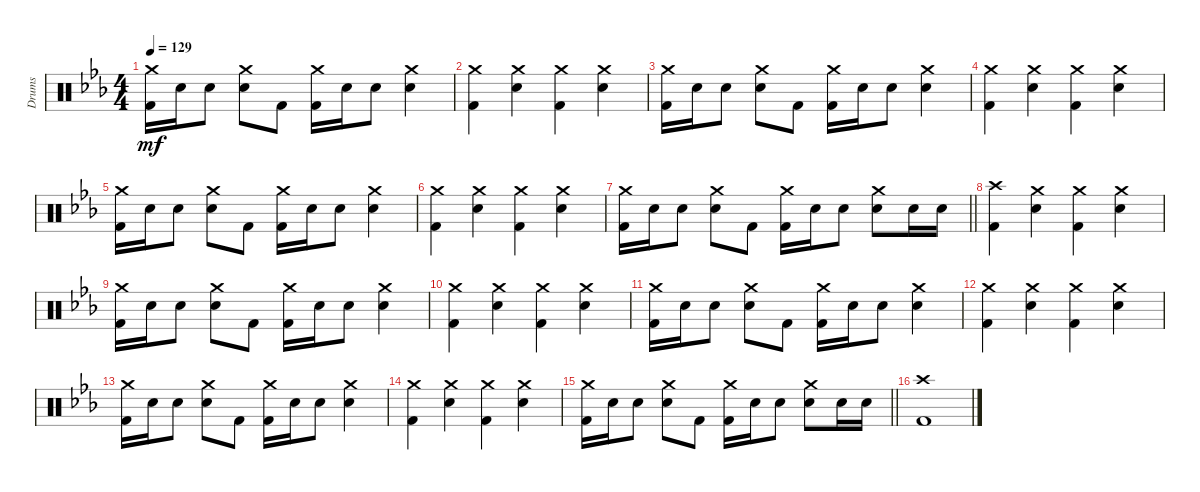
\track ("Drums" "Drums") {instrument percussion}
\staff {score}
\articulation defaults
\ts (4 4)
\tempo 129
\clef neutral
\ks eb
("Crash medium (hit)" "Kick (hit) 2").16{dy mf} "Electric Snare (hit)".16 "Electric Snare (hit)".8 ("Crash medium (hit)" "Electric Snare (hit)").8 "Kick (hit) 2".8 ("Crash medium (hit)" "Kick (hit) 2").16 "Electric Snare (hit)".16 "Electric Snare (hit)".8 ("Crash medium (hit)" "Electric Snare (hit)").4 |
("Crash medium (hit)" "Kick (hit) 2").4 ("Crash medium (hit)" "Electric Snare (hit)").4 ("Crash medium (hit)" "Kick (hit) 2").4 ("Crash medium (hit)" "Electric Snare (hit)").4 |
("Crash medium (hit)" "Kick (hit) 2").16 "Electric Snare (hit)".16 "Electric Snare (hit)".8 ("Crash medium (hit)" "Electric Snare (hit)").8 "Kick (hit) 2".8 ("Crash medium (hit)" "Kick (hit) 2").16 "Electric Snare (hit)".16 "Electric Snare (hit)".8 ("Crash medium (hit)" "Electric Snare (hit)").4 |
("Crash medium (hit)" "Kick (hit) 2").4 ("Crash medium (hit)" "Electric Snare (hit)").4 ("Crash medium (hit)" "Kick (hit) 2").4 ("Crash medium (hit)" "Electric Snare (hit)").4 |
("Crash medium (hit)" "Kick (hit) 2").16 "Electric Snare (hit)".16 "Electric Snare (hit)".8 ("Crash medium (hit)" "Electric Snare (hit)").8 "Kick (hit) 2".8 ("Crash medium (hit)" "Kick (hit) 2").16 "Electric Snare (hit)".16 "Electric Snare (hit)".8 ("Crash medium (hit)" "Electric Snare (hit)").4 |
("Crash medium (hit)" "Kick (hit) 2").4 ("Crash medium (hit)" "Electric Snare (hit)").4 ("Crash medium (hit)" "Kick (hit) 2").4 ("Crash medium (hit)" "Electric Snare (hit)").4 |
\barLineRight lightlight
("Crash medium (hit)" "Kick (hit) 2").16 "Electric Snare (hit)".16 "Electric Snare (hit)".8 ("Crash medium (hit)" "Electric Snare (hit)").8 "Kick (hit) 2".8 ("Crash medium (hit)" "Kick (hit) 2").16 "Electric Snare (hit)".16 "Electric Snare (hit)".8 ("Crash medium (hit)" "Electric Snare (hit)").8 "Electric Snare (hit)".16 "Electric Snare (hit)".16 |
("Crash high (hit)" "Kick (hit) 2").4 ("Crash medium (hit)" "Electric Snare (hit)").4 ("Crash medium (hit)" "Kick (hit) 2").4 ("Crash medium (hit)" "Electric Snare (hit)").4 |
("Crash medium (hit)" "Kick (hit) 2").16 "Electric Snare (hit)".16 "Electric Snare (hit)".8 ("Crash medium (hit)" "Electric Snare (hit)").8 "Kick (hit) 2".8 ("Crash medium (hit)" "Kick (hit) 2").16 "Electric Snare (hit)".16 "Electric Snare (hit)".8 ("Crash medium (hit)" "Electric Snare (hit)").4 |
("Crash medium (hit)" "Kick (hit) 2").4 ("Crash medium (hit)" "Electric Snare (hit)").4 ("Crash medium (hit)" "Kick (hit) 2").4 ("Crash medium (hit)" "Electric Snare (hit)").4 |
("Crash medium (hit)" "Kick (hit) 2").16 "Electric Snare (hit)".16 "Electric Snare (hit)".8 ("Crash medium (hit)" "Electric Snare (hit)").8 "Kick (hit) 2".8 ("Crash medium (hit)" "Kick (hit) 2").16 "Electric Snare (hit)".16 "Electric Snare (hit)".8 ("Crash medium (hit)" "Electric Snare (hit)").4 |
("Crash medium (hit)" "Kick (hit) 2").4 ("Crash medium (hit)" "Electric Snare (hit)").4 ("Crash medium (hit)" "Kick (hit) 2").4 ("Crash medium (hit)" "Electric Snare (hit)").4 |
("Crash medium (hit)" "Kick (hit) 2").16 "Electric Snare (hit)".16 "Electric Snare (hit)".8 ("Crash medium (hit)" "Electric Snare (hit)").8 "Kick (hit) 2".8 ("Crash medium (hit)" "Kick (hit) 2").16 "Electric Snare (hit)".16 "Electric Snare (hit)".8 ("Crash medium (hit)" "Electric Snare (hit)").4 |
("Crash medium (hit)" "Kick (hit) 2").4 ("Crash medium (hit)" "Electric Snare (hit)").4 ("Crash medium (hit)" "Kick (hit) 2").4 ("Crash medium (hit)" "Electric Snare (hit)").4 |
\barLineRight lightlight
("Crash medium (hit)" "Kick (hit) 2").16 "Electric Snare (hit)".16 "Electric Snare (hit)".8 ("Crash medium (hit)" "Electric Snare (hit)").8 "Kick (hit) 2".8 ("Crash medium (hit)" "Kick (hit) 2").16 "Electric Snare (hit)".16 "Electric Snare (hit)".8 ("Crash medium (hit)" "Electric Snare (hit)").8 "Electric Snare (hit)".16 "Electric Snare (hit)".16 |
("Crash high (hit)" "Kick (hit) 2").1
